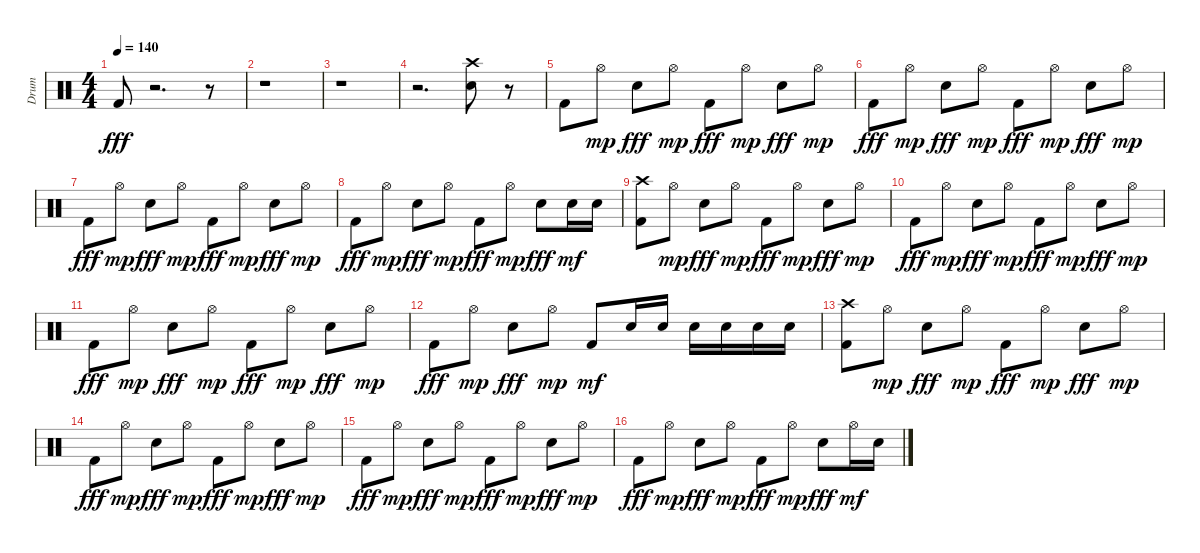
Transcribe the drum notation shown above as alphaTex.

\track ("Drum" "Drum") {instrument percussion}
\staff {score}
\articulation defaults
\ts (4 4)
\tempo 140
\clef neutral
\ks c "Kick (hit) 2".8{dy fff}
r.2{d} r.8 |
r.1 |
r.1 |
r.2{d} ("Electric Snare (hit)" "Crash high (hit)").8 r.8 |
"Kick (hit) 2".8 "Hi-Hat (open)".8{dy mp} "Electric Snare (hit)".8{dy fff} "Hi-Hat (open)".8{dy mp} "Kick (hit) 2".8{dy fff} "Hi-Hat (open)".8{dy mp} "Electric Snare (hit)".8{dy fff} "Hi-Hat (open)".8{dy mp} |
"Kick (hit) 2".8{dy fff} "Hi-Hat (open)".8{dy mp} "Electric Snare (hit)".8{dy fff} "Hi-Hat (open)".8{dy mp} "Kick (hit) 2".8{dy fff} "Hi-Hat (open)".8{dy mp} "Electric Snare (hit)".8{dy fff} "Hi-Hat (open)".8{dy mp} |
"Kick (hit) 2".8{dy fff} "Hi-Hat (open)".8{dy mp} "Electric Snare (hit)".8{dy fff} "Hi-Hat (open)".8{dy mp} "Kick (hit) 2".8{dy fff} "Hi-Hat (open)".8{dy mp} "Electric Snare (hit)".8{dy fff} "Hi-Hat (open)".8{dy mp} |
"Kick (hit) 2".8{dy fff} "Hi-Hat (open)".8{dy mp} "Electric Snare (hit)".8{dy fff} "Hi-Hat (open)".8{dy mp} "Kick (hit) 2".8{dy fff} "Hi-Hat (open)".8{dy mp} "Electric Snare (hit)".8{dy fff} "Electric Snare (hit)".16{dy mf} "Electric Snare (hit)".16 |
("Kick (hit) 2" "Crash high (hit)").8 "Hi-Hat (open)".8{dy mp} "Electric Snare (hit)".8{dy fff} "Hi-Hat (open)".8{dy mp} "Kick (hit) 2".8{dy fff} "Hi-Hat (open)".8{dy mp} "Electric Snare (hit)".8{dy fff} "Hi-Hat (open)".8{dy mp} |
"Kick (hit) 2".8{dy fff} "Hi-Hat (open)".8{dy mp} "Electric Snare (hit)".8{dy fff} "Hi-Hat (open)".8{dy mp} "Kick (hit) 2".8{dy fff} "Hi-Hat (open)".8{dy mp} "Electric Snare (hit)".8{dy fff} "Hi-Hat (open)".8{dy mp} |
"Kick (hit) 2".8{dy fff} "Hi-Hat (open)".8{dy mp} "Electric Snare (hit)".8{dy fff} "Hi-Hat (open)".8{dy mp} "Kick (hit) 2".8{dy fff} "Hi-Hat (open)".8{dy mp} "Electric Snare (hit)".8{dy fff} "Hi-Hat (open)".8{dy mp} |
"Kick (hit) 2".8{dy fff} "Hi-Hat (open)".8{dy mp} "Electric Snare (hit)".8{dy fff} "Hi-Hat (open)".8{dy mp} "Kick (hit) 2".8{dy mf} "Electric Snare (hit)".16 "Electric Snare (hit)".16 "Electric Snare (hit)".16 "Electric Snare (hit)".16 "Electric Snare (hit)".16 "Electric Snare (hit)".16 |
("Kick (hit) 2" "Crash high (hit)").8 "Hi-Hat (open)".8{dy mp} "Electric Snare (hit)".8{dy fff} "Hi-Hat (open)".8{dy mp} "Kick (hit) 2".8{dy fff} "Hi-Hat (open)".8{dy mp} "Electric Snare (hit)".8{dy fff} "Hi-Hat (open)".8{dy mp} |
"Kick (hit) 2".8{dy fff} "Hi-Hat (open)".8{dy mp} "Electric Snare (hit)".8{dy fff} "Hi-Hat (open)".8{dy mp} "Kick (hit) 2".8{dy fff} "Hi-Hat (open)".8{dy mp} "Electric Snare (hit)".8{dy fff} "Hi-Hat (open)".8{dy mp} |
"Kick (hit) 2".8{dy fff} "Hi-Hat (open)".8{dy mp} "Electric Snare (hit)".8{dy fff} "Hi-Hat (open)".8{dy mp} "Kick (hit) 2".8{dy fff} "Hi-Hat (open)".8{dy mp} "Electric Snare (hit)".8{dy fff} "Hi-Hat (open)".8{dy mp} |
"Kick (hit) 2".8{dy fff} "Hi-Hat (open)".8{dy mp} "Electric Snare (hit)".8{dy fff} "Hi-Hat (open)".8{dy mp} "Kick (hit) 2".8{dy fff} "Hi-Hat (open)".8{dy mp} "Electric Snare (hit)".8{dy fff} "Hi-Hat (open)".16{dy mf} "Electric Snare (hit)".16
